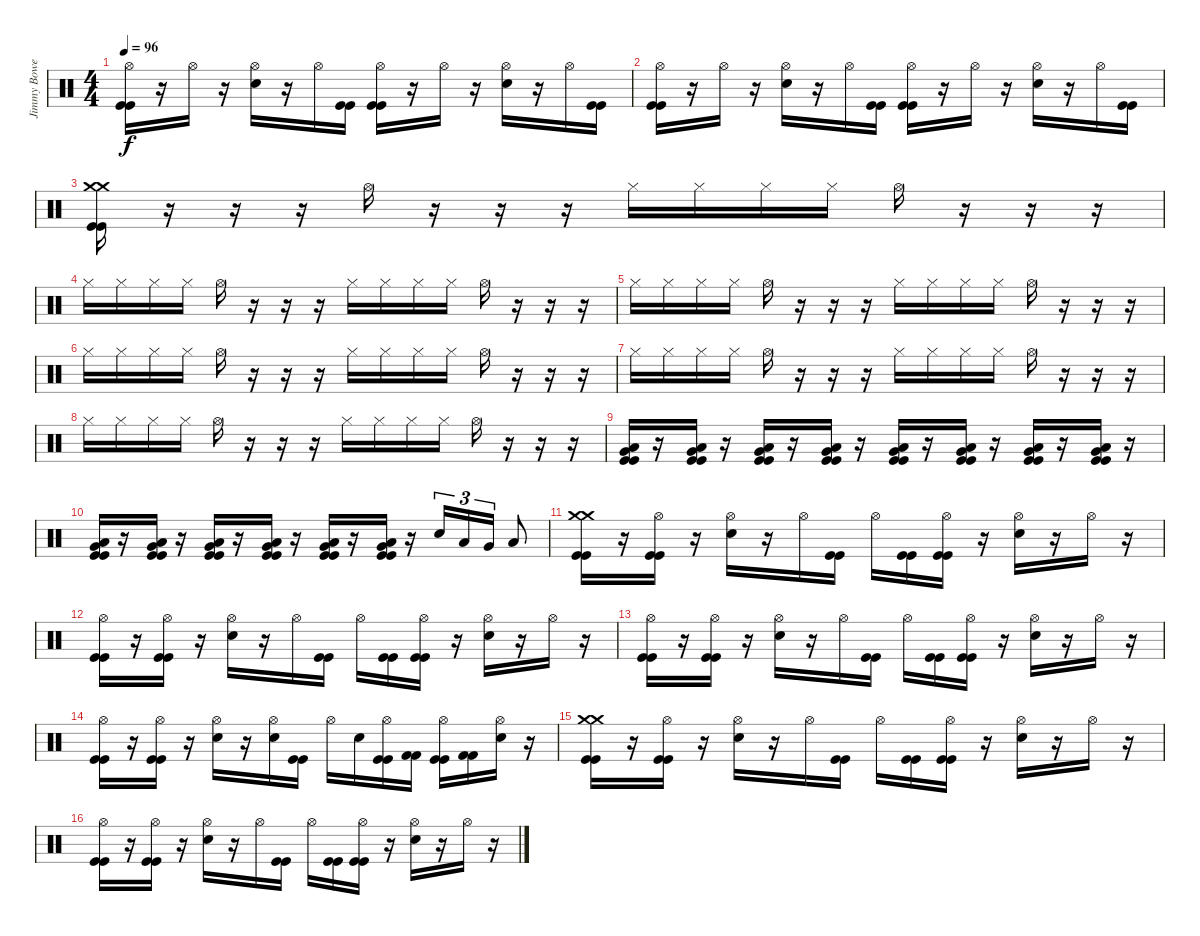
\track ("Jimmy Bower" "Jimmy Bowe") {instrument percussion}
\staff {score}
\articulation defaults
\ts (4 4)
\tempo 96
\clef neutral
\ks c
("Hi-Hat (open)" "Kick (hit)" "Kick (hit)").16{dy f} r.16 "Hi-Hat (open)".16 r.16 ("Hi-Hat (open)" "Snare (hit) 2").16 r.16 "Hi-Hat (open)".16 ("Kick (hit)" "Kick (hit)").16 ("Hi-Hat (open)" "Kick (hit)" "Kick (hit)").16 r.16 "Hi-Hat (open)".16 r.16 ("Hi-Hat (open)" "Snare (hit) 2").16 r.16 "Hi-Hat (open)".16 ("Kick (hit)" "Kick (hit)").16 |
("Hi-Hat (open)" "Kick (hit)" "Kick (hit)").16 r.16 "Hi-Hat (open)".16 r.16 ("Hi-Hat (open)" "Snare (hit) 2").16 r.16 "Hi-Hat (open)".16 ("Kick (hit)" "Kick (hit)").16 ("Hi-Hat (open)" "Kick (hit)" "Kick (hit)").16 r.16 "Hi-Hat (open)".16 r.16 ("Hi-Hat (open)" "Snare (hit) 2").16 r.16 "Hi-Hat (open)".16 ("Kick (hit)" "Kick (hit)").16 |
("Crash medium (hit)" "Crash medium (hit)" "Kick (hit)" "Kick (hit)").16 r.16 r.16 r.16 "Hi-Hat (open)".16 r.16 r.16 r.16 "Hi-Hat (closed)".16 "Hi-Hat (closed)".16 "Hi-Hat (closed)".16 "Hi-Hat (closed)".16 "Hi-Hat (open)".16 r.16 r.16 r.16 |
"Hi-Hat (closed)".16 "Hi-Hat (closed)".16 "Hi-Hat (closed)".16 "Hi-Hat (closed)".16 "Hi-Hat (open)".16 r.16 r.16 r.16 "Hi-Hat (closed)".16 "Hi-Hat (closed)".16 "Hi-Hat (closed)".16 "Hi-Hat (closed)".16 "Hi-Hat (open)".16 r.16 r.16 r.16 |
"Hi-Hat (closed)".16 "Hi-Hat (closed)".16 "Hi-Hat (closed)".16 "Hi-Hat (closed)".16 "Hi-Hat (open)".16 r.16 r.16 r.16 "Hi-Hat (closed)".16 "Hi-Hat (closed)".16 "Hi-Hat (closed)".16 "Hi-Hat (closed)".16 "Hi-Hat (open)".16 r.16 r.16 r.16 |
"Hi-Hat (closed)".16 "Hi-Hat (closed)".16 "Hi-Hat (closed)".16 "Hi-Hat (closed)".16 "Hi-Hat (open)".16 r.16 r.16 r.16 "Hi-Hat (closed)".16 "Hi-Hat (closed)".16 "Hi-Hat (closed)".16 "Hi-Hat (closed)".16 "Hi-Hat (open)".16 r.16 r.16 r.16 |
"Hi-Hat (closed)".16 "Hi-Hat (closed)".16 "Hi-Hat (closed)".16 "Hi-Hat (closed)".16 "Hi-Hat (open)".16 r.16 r.16 r.16 "Hi-Hat (closed)".16 "Hi-Hat (closed)".16 "Hi-Hat (closed)".16 "Hi-Hat (closed)".16 "Hi-Hat (open)".16 r.16 r.16 r.16 |
"Hi-Hat (closed)".16 "Hi-Hat (closed)".16 "Hi-Hat (closed)".16 "Hi-Hat (closed)".16 "Hi-Hat (open)".16 r.16 r.16 r.16 "Hi-Hat (closed)".16 "Hi-Hat (closed)".16 "Hi-Hat (closed)".16 "Hi-Hat (closed)".16 "Hi-Hat (open)".16 r.16 r.16 r.16 |
("Low Floor Tom (hit)" "Very Low Tom (hit)" "Kick (hit)" "Kick (hit)").16 r.16 ("Low Floor Tom (hit)" "Very Low Tom (hit)" "Kick (hit)" "Kick (hit)").16 r.16 ("Low Floor Tom (hit)" "Very Low Tom (hit)" "Kick (hit)" "Kick (hit)").16 r.16 ("Low Floor Tom (hit)" "Very Low Tom (hit)" "Kick (hit)" "Kick (hit)").16 r.16 ("Low Floor Tom (hit)" "Very Low Tom (hit)" "Kick (hit)" "Kick (hit)").16 r.16 ("Low Floor Tom (hit)" "Very Low Tom (hit)" "Kick (hit)" "Kick (hit)").16 r.16 ("Low Floor Tom (hit)" "Very Low Tom (hit)" "Kick (hit)" "Kick (hit)").16 r.16 ("Low Floor Tom (hit)" "Very Low Tom (hit)" "Kick (hit)" "Kick (hit)").16 r.16 |
("Low Floor Tom (hit)" "Very Low Tom (hit)" "Kick (hit)" "Kick (hit)").16 r.16 ("Low Floor Tom (hit)" "Very Low Tom (hit)" "Kick (hit)" "Kick (hit)").16 r.16 ("Low Floor Tom (hit)" "Very Low Tom (hit)" "Kick (hit)" "Kick (hit)").16 r.16 ("Low Floor Tom (hit)" "Very Low Tom (hit)" "Kick (hit)" "Kick (hit)").16 r.16 ("Low Floor Tom (hit)" "Very Low Tom (hit)" "Kick (hit)" "Kick (hit)").16 r.16 ("Low Floor Tom (hit)" "Very Low Tom (hit)" "Kick (hit)" "Kick (hit)").16 r.16 "Snare (hit) 2".16{tu (3 2)} "Low Tom (hit)".16{tu (3 2)} "Very Low Tom (hit)".16{tu (3 2)} "Low Floor Tom (hit)".8 |
("Crash medium (hit)" "Crash medium (hit)" "Kick (hit)" "Kick (hit)").16 r.16 ("Hi-Hat (open)" "Kick (hit)" "Kick (hit)").16 r.16 ("Hi-Hat (open)" "Snare (hit) 2").16 r.16 "Hi-Hat (open)".16 ("Kick (hit)" "Kick (hit)").16 "Hi-Hat (open)".16 ("Kick (hit)" "Kick (hit)").16 ("Hi-Hat (open)" "Kick (hit)" "Kick (hit)").16 r.16 ("Hi-Hat (open)" "Snare (hit) 2").16 r.16 "Hi-Hat (open)".16 r.16 |
("Hi-Hat (open)" "Kick (hit)" "Kick (hit)").16 r.16 ("Hi-Hat (open)" "Kick (hit)" "Kick (hit)").16 r.16 ("Hi-Hat (open)" "Snare (hit) 2").16 r.16 "Hi-Hat (open)".16 ("Kick (hit)" "Kick (hit)").16 "Hi-Hat (open)".16 ("Kick (hit)" "Kick (hit)").16 ("Hi-Hat (open)" "Kick (hit)" "Kick (hit)").16 r.16 ("Hi-Hat (open)" "Snare (hit) 2").16 r.16 "Hi-Hat (open)".16 r.16 |
("Hi-Hat (open)" "Kick (hit)" "Kick (hit)").16 r.16 ("Hi-Hat (open)" "Kick (hit)" "Kick (hit)").16 r.16 ("Hi-Hat (open)" "Snare (hit) 2").16 r.16 "Hi-Hat (open)".16 ("Kick (hit)" "Kick (hit)").16 "Hi-Hat (open)".16 ("Kick (hit)" "Kick (hit)").16 ("Hi-Hat (open)" "Kick (hit)" "Kick (hit)").16 r.16 ("Hi-Hat (open)" "Snare (hit) 2").16 r.16 "Hi-Hat (open)".16 r.16 |
("Hi-Hat (open)" "Kick (hit)" "Kick (hit)").16 r.16 ("Hi-Hat (open)" "Kick (hit)" "Kick (hit)").16 r.16 ("Hi-Hat (open)" "Snare (hit) 2").16 r.16 ("Hi-Hat (open)" "Snare (hit) 2").16 ("Kick (hit)" "Kick (hit)").16 "Hi-Hat (open)".16 "Snare (hit) 2".16 ("Hi-Hat (open)" "Kick (hit)" "Kick (hit)").16 ("Kick (hit) 2" "Kick (hit) 2").16 ("Hi-Hat (open)" "Kick (hit)" "Kick (hit)").16 ("Kick (hit) 2" "Kick (hit) 2").16 ("Hi-Hat (open)" "Snare (hit) 2").16 r.16 |
("Crash medium (hit)" "Crash medium (hit)" "Kick (hit)" "Kick (hit)").16 r.16 ("Hi-Hat (open)" "Kick (hit)" "Kick (hit)").16 r.16 ("Hi-Hat (open)" "Snare (hit) 2").16 r.16 "Hi-Hat (open)".16 ("Kick (hit)" "Kick (hit)").16 "Hi-Hat (open)".16 ("Kick (hit)" "Kick (hit)").16 ("Hi-Hat (open)" "Kick (hit)" "Kick (hit)").16 r.16 ("Hi-Hat (open)" "Snare (hit) 2").16 r.16 "Hi-Hat (open)".16 r.16 |
("Hi-Hat (open)" "Kick (hit)" "Kick (hit)").16 r.16 ("Hi-Hat (open)" "Kick (hit)" "Kick (hit)").16 r.16 ("Hi-Hat (open)" "Snare (hit) 2").16 r.16 "Hi-Hat (open)".16 ("Kick (hit)" "Kick (hit)").16 "Hi-Hat (open)".16 ("Kick (hit)" "Kick (hit)").16 ("Hi-Hat (open)" "Kick (hit)" "Kick (hit)").16 r.16 ("Hi-Hat (open)" "Snare (hit) 2").16 r.16 "Hi-Hat (open)".16 r.16
